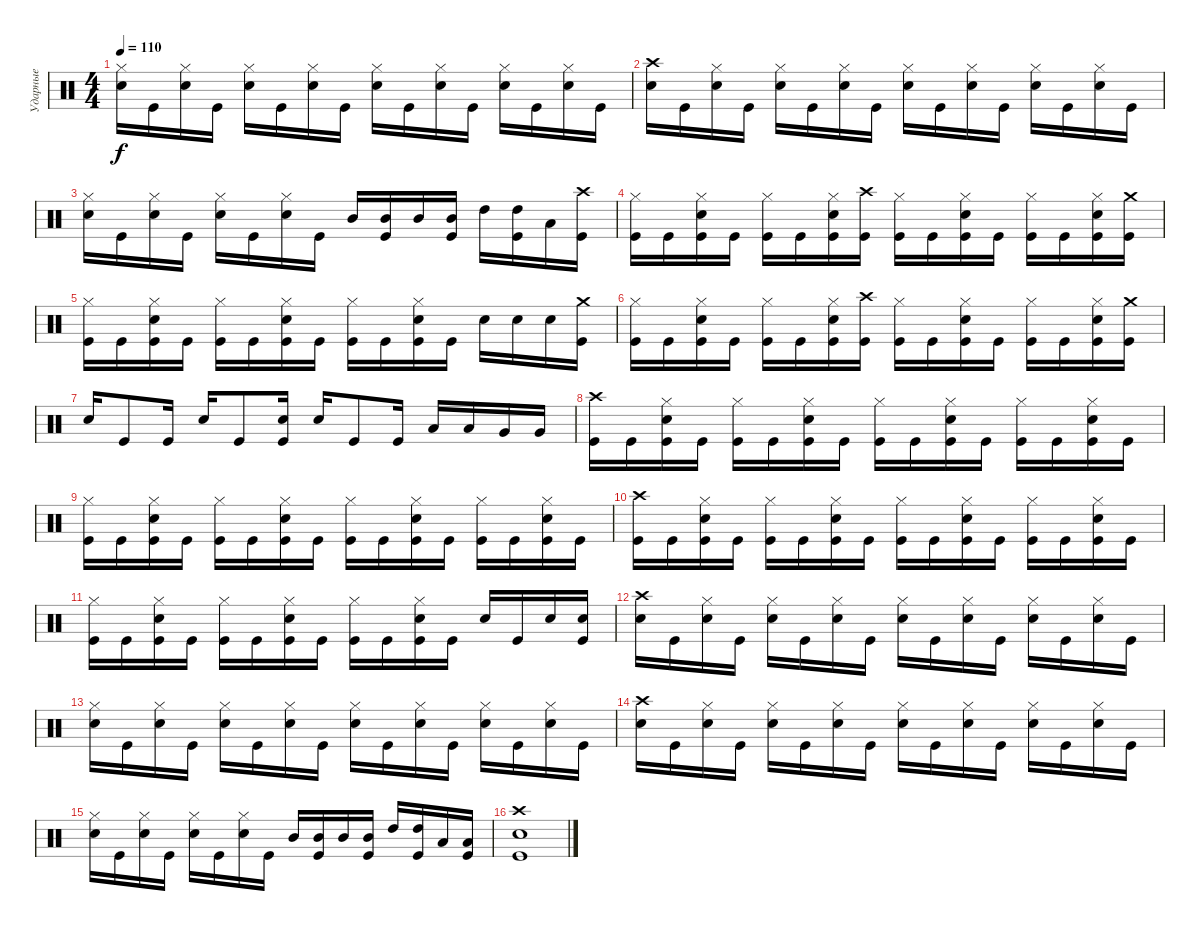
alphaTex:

\track ("Ударные" "Ударные") {instrument percussion}
\staff {score}
\articulation defaults
\ts (4 4)
\tempo 110
\clef neutral
\ks c
("Hi-Hat (closed)" "Electric Snare (hit)").16{dy f} "Kick (hit)".16 ("Hi-Hat (closed)" "Electric Snare (hit)").16 "Kick (hit)".16 ("Hi-Hat (closed)" "Electric Snare (hit)").16 "Kick (hit)".16 ("Hi-Hat (closed)" "Electric Snare (hit)").16 "Kick (hit)".16 ("Hi-Hat (closed)" "Electric Snare (hit)").16 "Kick (hit)".16 ("Hi-Hat (closed)" "Electric Snare (hit)").16 "Kick (hit)".16 ("Hi-Hat (closed)" "Electric Snare (hit)").16 "Kick (hit)".16 ("Hi-Hat (closed)" "Electric Snare (hit)").16 "Kick (hit)".16 |
("Crash high (hit)" "Electric Snare (hit)").16 "Kick (hit)".16 ("Hi-Hat (closed)" "Electric Snare (hit)").16 "Kick (hit)".16 ("Hi-Hat (closed)" "Electric Snare (hit)").16 "Kick (hit)".16 ("Hi-Hat (closed)" "Electric Snare (hit)").16 "Kick (hit)".16 ("Hi-Hat (closed)" "Electric Snare (hit)").16 "Kick (hit)".16 ("Hi-Hat (closed)" "Electric Snare (hit)").16 "Kick (hit)".16 ("Hi-Hat (closed)" "Electric Snare (hit)").16 "Kick (hit)".16 ("Hi-Hat (closed)" "Electric Snare (hit)").16 "Kick (hit)".16 |
("Hi-Hat (closed)" "Electric Snare (hit)").16 "Kick (hit)".16 ("Hi-Hat (closed)" "Electric Snare (hit)").16 "Kick (hit)".16 ("Hi-Hat (closed)" "Electric Snare (hit)").16 "Kick (hit)".16 ("Hi-Hat (closed)" "Electric Snare (hit)").16 "Kick (hit)".16 "Mid Tom (hit)".16 ("Mid Tom (hit)" "Kick (hit)").16 "Mid Tom (hit)".16 ("Mid Tom (hit)" "Kick (hit)").16 "High Tom (hit)".16 ("High Tom (hit)" "Kick (hit)").16 "Low Tom (hit)".16 ("Crash high (hit)" "Kick (hit)").16 |
("Hi-Hat (closed)" "Kick (hit)").16 "Kick (hit)".16 ("Hi-Hat (closed)" "Electric Snare (hit)" "Kick (hit)").16 "Kick (hit)".16 ("Hi-Hat (closed)" "Kick (hit)").16 "Kick (hit)".16 ("Hi-Hat (closed)" "Electric Snare (hit)" "Kick (hit)").16 ("Crash high (hit)" "Kick (hit)").16 ("Hi-Hat (closed)" "Kick (hit)").16 "Kick (hit)".16 ("Hi-Hat (closed)" "Electric Snare (hit)" "Kick (hit)").16 "Kick (hit)".16 ("Hi-Hat (closed)" "Kick (hit)").16 "Kick (hit)".16 ("Hi-Hat (closed)" "Electric Snare (hit)" "Kick (hit)").16 ("Crash medium (hit)" "Kick (hit)").16 |
("Hi-Hat (closed)" "Kick (hit)").16 "Kick (hit)".16 ("Hi-Hat (closed)" "Electric Snare (hit)" "Kick (hit)").16 "Kick (hit)".16 ("Hi-Hat (closed)" "Kick (hit)").16 "Kick (hit)".16 ("Hi-Hat (closed)" "Electric Snare (hit)" "Kick (hit)").16 "Kick (hit)".16 ("Hi-Hat (closed)" "Kick (hit)").16 "Kick (hit)".16 ("Hi-Hat (closed)" "Electric Snare (hit)" "Kick (hit)").16 "Kick (hit)".16 "Electric Snare (hit)".16 "Electric Snare (hit)".16 "Electric Snare (hit)".16 ("Crash medium (hit)" "Kick (hit)").16 |
("Hi-Hat (closed)" "Kick (hit)").16 "Kick (hit)".16 ("Hi-Hat (closed)" "Electric Snare (hit)" "Kick (hit)").16 "Kick (hit)".16 ("Hi-Hat (closed)" "Kick (hit)").16 "Kick (hit)".16 ("Hi-Hat (closed)" "Electric Snare (hit)" "Kick (hit)").16 ("Crash high (hit)" "Kick (hit)").16 ("Hi-Hat (closed)" "Kick (hit)").16 "Kick (hit)".16 ("Hi-Hat (closed)" "Electric Snare (hit)" "Kick (hit)").16 "Kick (hit)".16 ("Hi-Hat (closed)" "Kick (hit)").16 "Kick (hit)".16 ("Hi-Hat (closed)" "Electric Snare (hit)" "Kick (hit)").16 ("Crash medium (hit)" "Kick (hit)").16 |
"Electric Snare (hit)".16 "Kick (hit)".8 "Kick (hit)".16 "Electric Snare (hit)".16 "Kick (hit)".8 ("Electric Snare (hit)" "Kick (hit)").16 "Electric Snare (hit)".16 "Kick (hit)".8 "Kick (hit)".16 "Low Tom (hit)".16 "Low Tom (hit)".16 "Very Low Tom (hit)".16 "Very Low Tom (hit)".16 |
("Crash high (hit)" "Kick (hit)").16 "Kick (hit)".16 ("Hi-Hat (closed)" "Electric Snare (hit)" "Kick (hit)").16 "Kick (hit)".16 ("Hi-Hat (closed)" "Kick (hit)").16 "Kick (hit)".16 ("Hi-Hat (closed)" "Electric Snare (hit)" "Kick (hit)").16 "Kick (hit)".16 ("Hi-Hat (closed)" "Kick (hit)").16 "Kick (hit)".16 ("Hi-Hat (closed)" "Electric Snare (hit)" "Kick (hit)").16 "Kick (hit)".16 ("Hi-Hat (closed)" "Kick (hit)").16 "Kick (hit)".16 ("Hi-Hat (closed)" "Electric Snare (hit)" "Kick (hit)").16 "Kick (hit)".16 |
("Hi-Hat (closed)" "Kick (hit)").16 "Kick (hit)".16 ("Hi-Hat (closed)" "Electric Snare (hit)" "Kick (hit)").16 "Kick (hit)".16 ("Hi-Hat (closed)" "Kick (hit)").16 "Kick (hit)".16 ("Hi-Hat (closed)" "Electric Snare (hit)" "Kick (hit)").16 "Kick (hit)".16 ("Hi-Hat (closed)" "Kick (hit)").16 "Kick (hit)".16 ("Hi-Hat (closed)" "Electric Snare (hit)" "Kick (hit)").16 "Kick (hit)".16 ("Hi-Hat (closed)" "Kick (hit)").16 "Kick (hit)".16 ("Hi-Hat (closed)" "Electric Snare (hit)" "Kick (hit)").16 "Kick (hit)".16 |
("Crash high (hit)" "Kick (hit)").16 "Kick (hit)".16 ("Hi-Hat (closed)" "Electric Snare (hit)" "Kick (hit)").16 "Kick (hit)".16 ("Hi-Hat (closed)" "Kick (hit)").16 "Kick (hit)".16 ("Hi-Hat (closed)" "Electric Snare (hit)" "Kick (hit)").16 "Kick (hit)".16 ("Hi-Hat (closed)" "Kick (hit)").16 "Kick (hit)".16 ("Hi-Hat (closed)" "Electric Snare (hit)" "Kick (hit)").16 "Kick (hit)".16 ("Hi-Hat (closed)" "Kick (hit)").16 "Kick (hit)".16 ("Hi-Hat (closed)" "Electric Snare (hit)" "Kick (hit)").16 "Kick (hit)".16 |
("Hi-Hat (closed)" "Kick (hit)").16 "Kick (hit)".16 ("Hi-Hat (closed)" "Electric Snare (hit)" "Kick (hit)").16 "Kick (hit)".16 ("Hi-Hat (closed)" "Kick (hit)").16 "Kick (hit)".16 ("Hi-Hat (closed)" "Electric Snare (hit)" "Kick (hit)").16 "Kick (hit)".16 ("Hi-Hat (closed)" "Kick (hit)").16 "Kick (hit)".16 ("Hi-Hat (closed)" "Electric Snare (hit)" "Kick (hit)").16 "Kick (hit)".16 "Electric Snare (hit)".16 "Kick (hit)".16 "Electric Snare (hit)".16 ("Electric Snare (hit)" "Kick (hit)").16 |
("Crash high (hit)" "Electric Snare (hit)").16 "Kick (hit)".16 ("Hi-Hat (closed)" "Electric Snare (hit)").16 "Kick (hit)".16 ("Hi-Hat (closed)" "Electric Snare (hit)").16 "Kick (hit)".16 ("Hi-Hat (closed)" "Electric Snare (hit)").16 "Kick (hit)".16 ("Hi-Hat (closed)" "Electric Snare (hit)").16 "Kick (hit)".16 ("Hi-Hat (closed)" "Electric Snare (hit)").16 "Kick (hit)".16 ("Hi-Hat (closed)" "Electric Snare (hit)").16 "Kick (hit)".16 ("Hi-Hat (closed)" "Electric Snare (hit)").16 "Kick (hit)".16 |
("Hi-Hat (closed)" "Electric Snare (hit)").16 "Kick (hit)".16 ("Hi-Hat (closed)" "Electric Snare (hit)").16 "Kick (hit)".16 ("Hi-Hat (closed)" "Electric Snare (hit)").16 "Kick (hit)".16 ("Hi-Hat (closed)" "Electric Snare (hit)").16 "Kick (hit)".16 ("Hi-Hat (closed)" "Electric Snare (hit)").16 "Kick (hit)".16 ("Hi-Hat (closed)" "Electric Snare (hit)").16 "Kick (hit)".16 ("Hi-Hat (closed)" "Electric Snare (hit)").16 "Kick (hit)".16 ("Hi-Hat (closed)" "Electric Snare (hit)").16 "Kick (hit)".16 |
("Crash high (hit)" "Electric Snare (hit)").16 "Kick (hit)".16 ("Hi-Hat (closed)" "Electric Snare (hit)").16 "Kick (hit)".16 ("Hi-Hat (closed)" "Electric Snare (hit)").16 "Kick (hit)".16 ("Hi-Hat (closed)" "Electric Snare (hit)").16 "Kick (hit)".16 ("Hi-Hat (closed)" "Electric Snare (hit)").16 "Kick (hit)".16 ("Hi-Hat (closed)" "Electric Snare (hit)").16 "Kick (hit)".16 ("Hi-Hat (closed)" "Electric Snare (hit)").16 "Kick (hit)".16 ("Hi-Hat (closed)" "Electric Snare (hit)").16 "Kick (hit)".16 |
("Hi-Hat (closed)" "Electric Snare (hit)").16 "Kick (hit)".16 ("Hi-Hat (closed)" "Electric Snare (hit)").16 "Kick (hit)".16 ("Hi-Hat (closed)" "Electric Snare (hit)").16 "Kick (hit)".16 ("Hi-Hat (closed)" "Electric Snare (hit)").16 "Kick (hit)".16 "Mid Tom (hit)".16 ("Mid Tom (hit)" "Kick (hit)").16 "Mid Tom (hit)".16 ("Mid Tom (hit)" "Kick (hit)").16 "High Tom (hit)".16 ("High Tom (hit)" "Kick (hit)").16 "Low Tom (hit)".16 ("Low Tom (hit)" "Kick (hit)").16 |
("Crash high (hit)" "Electric Snare (hit)" "Kick (hit)").1
